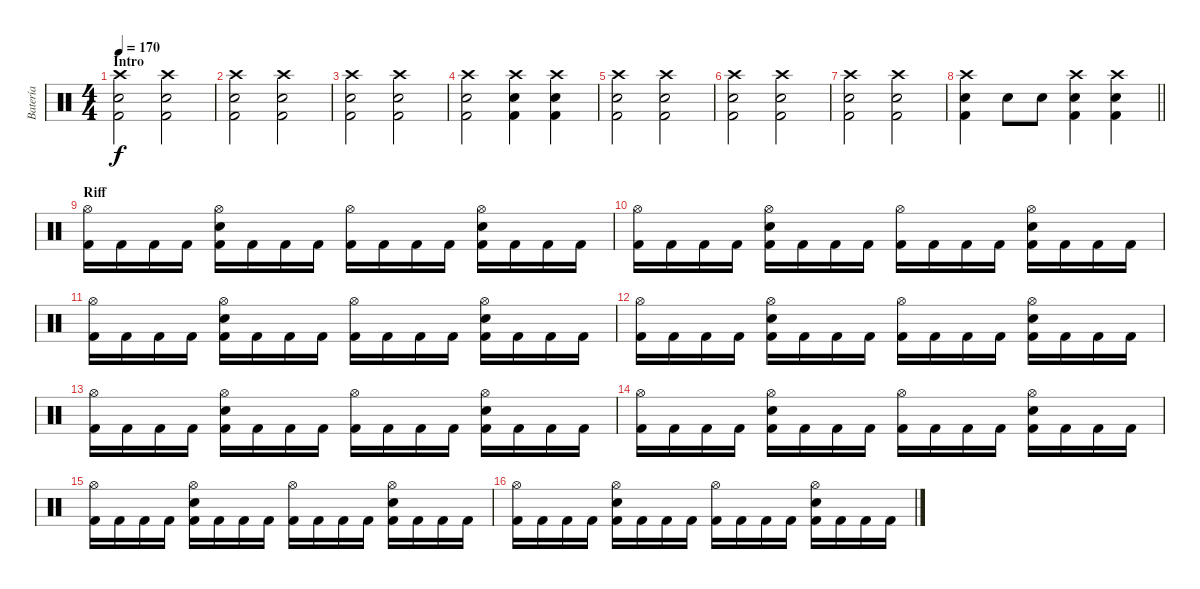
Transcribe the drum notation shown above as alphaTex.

\track ("Batería" "Batería") {instrument percussion}
\staff {score}
\articulation defaults
\ts (4 4)
\section ("" "Intro")
\tempo 170
\clef neutral
\ks c
("Crash high (hit)" "Snare (hit) 2" "Kick (hit) 2").2{dy f} ("Crash high (hit)" "Snare (hit) 2" "Kick (hit) 2").2 |
("Crash high (hit)" "Snare (hit) 2" "Kick (hit) 2").2 ("Crash high (hit)" "Snare (hit) 2" "Kick (hit) 2").2 |
("Crash high (hit)" "Snare (hit) 2" "Kick (hit) 2").2 ("Crash high (hit)" "Snare (hit) 2" "Kick (hit) 2").2 |
("Crash high (hit)" "Snare (hit) 2" "Kick (hit) 2").2 ("Crash high (hit)" "Snare (hit) 2" "Kick (hit) 2").4 ("Crash high (hit)" "Snare (hit) 2" "Kick (hit) 2").4 |
("Crash high (hit)" "Snare (hit) 2" "Kick (hit) 2").2 ("Crash high (hit)" "Snare (hit) 2" "Kick (hit) 2").2 |
("Crash high (hit)" "Snare (hit) 2" "Kick (hit) 2").2 ("Crash high (hit)" "Snare (hit) 2" "Kick (hit) 2").2 |
("Crash high (hit)" "Snare (hit) 2" "Kick (hit) 2").2 ("Crash high (hit)" "Snare (hit) 2" "Kick (hit) 2").2 |
\barLineRight lightlight
("Crash high (hit)" "Snare (hit) 2" "Kick (hit) 2").4 "Snare (hit) 2".8 "Snare (hit) 2".8 ("Crash high (hit)" "Snare (hit) 2" "Kick (hit) 2").4 ("Crash high (hit)" "Snare (hit) 2" "Kick (hit) 2").4 |
\section ("" "Riff")
("Hi-Hat (open)" "Kick (hit) 2").16 "Kick (hit) 2".16 "Kick (hit) 2".16 "Kick (hit) 2".16 ("Hi-Hat (open)" "Snare (hit) 2" "Kick (hit) 2").16 "Kick (hit) 2".16 "Kick (hit) 2".16 "Kick (hit) 2".16 ("Hi-Hat (open)" "Kick (hit) 2").16 "Kick (hit) 2".16 "Kick (hit) 2".16 "Kick (hit) 2".16 ("Hi-Hat (open)" "Snare (hit) 2" "Kick (hit) 2").16 "Kick (hit) 2".16 "Kick (hit) 2".16 "Kick (hit) 2".16 |
("Hi-Hat (open)" "Kick (hit) 2").16 "Kick (hit) 2".16 "Kick (hit) 2".16 "Kick (hit) 2".16 ("Hi-Hat (open)" "Snare (hit) 2" "Kick (hit) 2").16 "Kick (hit) 2".16 "Kick (hit) 2".16 "Kick (hit) 2".16 ("Hi-Hat (open)" "Kick (hit) 2").16 "Kick (hit) 2".16 "Kick (hit) 2".16 "Kick (hit) 2".16 ("Hi-Hat (open)" "Snare (hit) 2" "Kick (hit) 2").16 "Kick (hit) 2".16 "Kick (hit) 2".16 "Kick (hit) 2".16 |
("Hi-Hat (open)" "Kick (hit) 2").16 "Kick (hit) 2".16 "Kick (hit) 2".16 "Kick (hit) 2".16 ("Hi-Hat (open)" "Snare (hit) 2" "Kick (hit) 2").16 "Kick (hit) 2".16 "Kick (hit) 2".16 "Kick (hit) 2".16 ("Hi-Hat (open)" "Kick (hit) 2").16 "Kick (hit) 2".16 "Kick (hit) 2".16 "Kick (hit) 2".16 ("Hi-Hat (open)" "Snare (hit) 2" "Kick (hit) 2").16 "Kick (hit) 2".16 "Kick (hit) 2".16 "Kick (hit) 2".16 |
("Hi-Hat (open)" "Kick (hit) 2").16 "Kick (hit) 2".16 "Kick (hit) 2".16 "Kick (hit) 2".16 ("Hi-Hat (open)" "Snare (hit) 2" "Kick (hit) 2").16 "Kick (hit) 2".16 "Kick (hit) 2".16 "Kick (hit) 2".16 ("Hi-Hat (open)" "Kick (hit) 2").16 "Kick (hit) 2".16 "Kick (hit) 2".16 "Kick (hit) 2".16 ("Hi-Hat (open)" "Snare (hit) 2" "Kick (hit) 2").16 "Kick (hit) 2".16 "Kick (hit) 2".16 "Kick (hit) 2".16 |
("Hi-Hat (open)" "Kick (hit) 2").16 "Kick (hit) 2".16 "Kick (hit) 2".16 "Kick (hit) 2".16 ("Hi-Hat (open)" "Snare (hit) 2" "Kick (hit) 2").16 "Kick (hit) 2".16 "Kick (hit) 2".16 "Kick (hit) 2".16 ("Hi-Hat (open)" "Kick (hit) 2").16 "Kick (hit) 2".16 "Kick (hit) 2".16 "Kick (hit) 2".16 ("Hi-Hat (open)" "Snare (hit) 2" "Kick (hit) 2").16 "Kick (hit) 2".16 "Kick (hit) 2".16 "Kick (hit) 2".16 |
("Hi-Hat (open)" "Kick (hit) 2").16 "Kick (hit) 2".16 "Kick (hit) 2".16 "Kick (hit) 2".16 ("Hi-Hat (open)" "Snare (hit) 2" "Kick (hit) 2").16 "Kick (hit) 2".16 "Kick (hit) 2".16 "Kick (hit) 2".16 ("Hi-Hat (open)" "Kick (hit) 2").16 "Kick (hit) 2".16 "Kick (hit) 2".16 "Kick (hit) 2".16 ("Hi-Hat (open)" "Snare (hit) 2" "Kick (hit) 2").16 "Kick (hit) 2".16 "Kick (hit) 2".16 "Kick (hit) 2".16 |
("Hi-Hat (open)" "Kick (hit) 2").16 "Kick (hit) 2".16 "Kick (hit) 2".16 "Kick (hit) 2".16 ("Hi-Hat (open)" "Snare (hit) 2" "Kick (hit) 2").16 "Kick (hit) 2".16 "Kick (hit) 2".16 "Kick (hit) 2".16 ("Hi-Hat (open)" "Kick (hit) 2").16 "Kick (hit) 2".16 "Kick (hit) 2".16 "Kick (hit) 2".16 ("Hi-Hat (open)" "Snare (hit) 2" "Kick (hit) 2").16 "Kick (hit) 2".16 "Kick (hit) 2".16 "Kick (hit) 2".16 |
("Hi-Hat (open)" "Kick (hit) 2").16 "Kick (hit) 2".16 "Kick (hit) 2".16 "Kick (hit) 2".16 ("Hi-Hat (open)" "Snare (hit) 2" "Kick (hit) 2").16 "Kick (hit) 2".16 "Kick (hit) 2".16 "Kick (hit) 2".16 ("Hi-Hat (open)" "Kick (hit) 2").16 "Kick (hit) 2".16 "Kick (hit) 2".16 "Kick (hit) 2".16 ("Hi-Hat (open)" "Snare (hit) 2" "Kick (hit) 2").16 "Kick (hit) 2".16 "Kick (hit) 2".16 "Kick (hit) 2".16
